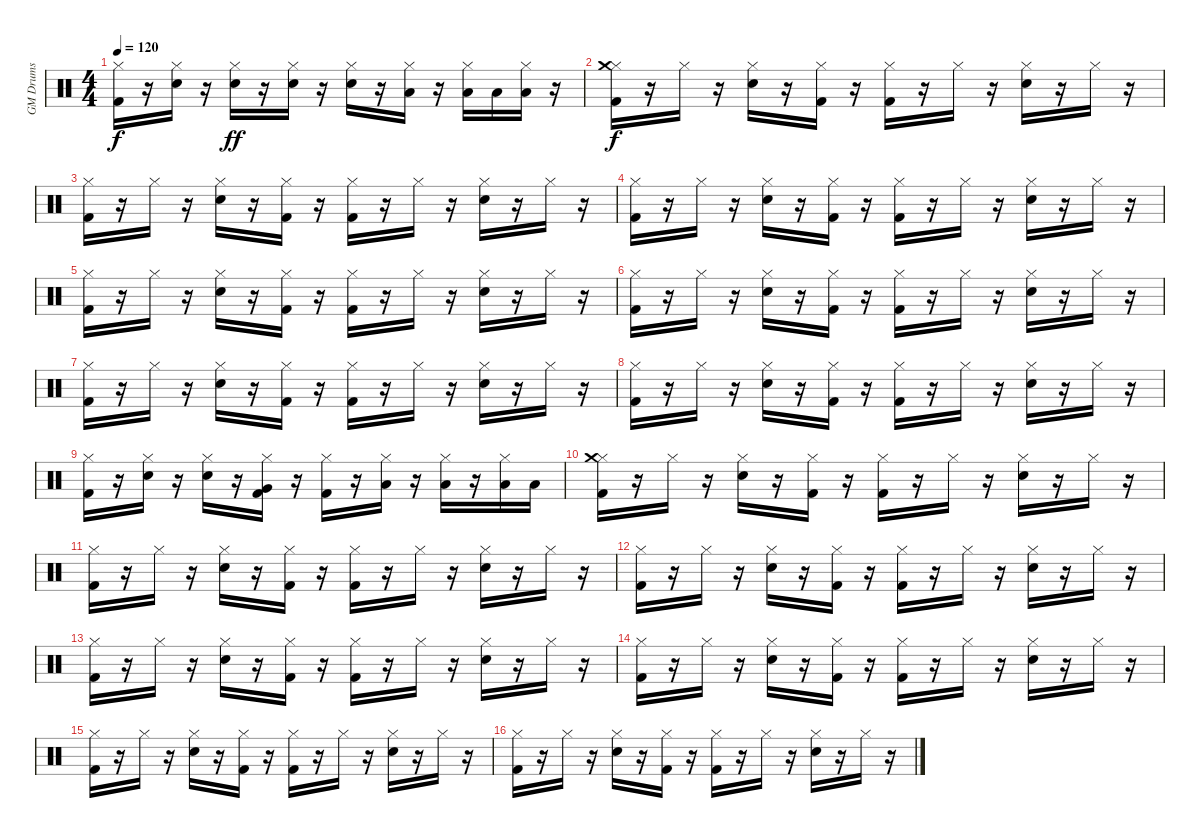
\track ("GM Drums" "GM Drums") {instrument percussion}
\staff {score}
\articulation defaults
\ts (4 4)
\tempo 120
\clef neutral
\ks c
("Kick (hit) 2" "Hi-Hat (closed)").16{dy f} r.16 ("Snare (hit) 2" "Hi-Hat (closed)").16 r.16 ("Snare (hit) 2" "Hi-Hat (closed)").16{dy ff} r.16 ("Snare (hit) 2" "Hi-Hat (closed)").16 r.16 ("Snare (hit) 2" "Hi-Hat (closed)").16 r.16 ("Low Floor Tom (hit)" "Hi-Hat (closed)").16 r.16 ("Hi-Hat (closed)" "Low Tom (hit)").16 "Low Tom (hit)".16 ("Hi-Hat (closed)" "Low Tom (hit)").16 r.16 |
("Kick (hit) 2" "Hi-Hat (closed)" "Crash medium (hit)").16{dy f} r.16 "Hi-Hat (closed)".16 r.16 ("Snare (hit) 2" "Hi-Hat (closed)").16 r.16 ("Kick (hit) 2" "Hi-Hat (closed)").16 r.16 ("Kick (hit) 2" "Hi-Hat (closed)").16 r.16 "Hi-Hat (closed)".16 r.16 ("Snare (hit) 2" "Hi-Hat (closed)").16 r.16 "Hi-Hat (closed)".16 r.16 |
("Kick (hit) 2" "Hi-Hat (closed)").16 r.16 "Hi-Hat (closed)".16 r.16 ("Snare (hit) 2" "Hi-Hat (closed)").16 r.16 ("Kick (hit) 2" "Hi-Hat (closed)").16 r.16 ("Kick (hit) 2" "Hi-Hat (closed)").16 r.16 "Hi-Hat (closed)".16 r.16 ("Snare (hit) 2" "Hi-Hat (closed)").16 r.16 "Hi-Hat (closed)".16 r.16 |
("Kick (hit) 2" "Hi-Hat (closed)").16 r.16 "Hi-Hat (closed)".16 r.16 ("Snare (hit) 2" "Hi-Hat (closed)").16 r.16 ("Kick (hit) 2" "Hi-Hat (closed)").16 r.16 ("Kick (hit) 2" "Hi-Hat (closed)").16 r.16 "Hi-Hat (closed)".16 r.16 ("Snare (hit) 2" "Hi-Hat (closed)").16 r.16 "Hi-Hat (closed)".16 r.16 |
("Kick (hit) 2" "Hi-Hat (closed)").16 r.16 "Hi-Hat (closed)".16 r.16 ("Snare (hit) 2" "Hi-Hat (closed)").16 r.16 ("Kick (hit) 2" "Hi-Hat (closed)").16 r.16 ("Kick (hit) 2" "Hi-Hat (closed)").16 r.16 "Hi-Hat (closed)".16 r.16 ("Snare (hit) 2" "Hi-Hat (closed)").16 r.16 "Hi-Hat (closed)".16 r.16 |
("Kick (hit) 2" "Hi-Hat (closed)").16 r.16 "Hi-Hat (closed)".16 r.16 ("Snare (hit) 2" "Hi-Hat (closed)").16 r.16 ("Kick (hit) 2" "Hi-Hat (closed)").16 r.16 ("Kick (hit) 2" "Hi-Hat (closed)").16 r.16 "Hi-Hat (closed)".16 r.16 ("Snare (hit) 2" "Hi-Hat (closed)").16 r.16 "Hi-Hat (closed)".16 r.16 |
("Kick (hit) 2" "Hi-Hat (closed)").16 r.16 "Hi-Hat (closed)".16 r.16 ("Snare (hit) 2" "Hi-Hat (closed)").16 r.16 ("Kick (hit) 2" "Hi-Hat (closed)").16 r.16 ("Kick (hit) 2" "Hi-Hat (closed)").16 r.16 "Hi-Hat (closed)".16 r.16 ("Snare (hit) 2" "Hi-Hat (closed)").16 r.16 "Hi-Hat (closed)".16 r.16 |
("Kick (hit) 2" "Hi-Hat (closed)").16 r.16 "Hi-Hat (closed)".16 r.16 ("Snare (hit) 2" "Hi-Hat (closed)").16 r.16 ("Kick (hit) 2" "Hi-Hat (closed)").16 r.16 ("Kick (hit) 2" "Hi-Hat (closed)").16 r.16 "Hi-Hat (closed)".16 r.16 ("Snare (hit) 2" "Hi-Hat (closed)").16 r.16 "Hi-Hat (closed)".16 r.16 |
("Kick (hit) 2" "Hi-Hat (closed)").16 r.16 ("Snare (hit) 2" "Hi-Hat (closed)").16 r.16 ("Snare (hit) 2" "Hi-Hat (closed)").16 r.16 ("Kick (hit) 2" "Hi-Hat (closed)" "Very Low Tom (hit)").16 r.16 ("Kick (hit) 2" "Hi-Hat (closed)").16 r.16 ("Low Floor Tom (hit)" "Hi-Hat (closed)").16 r.16 ("Hi-Hat (closed)" "Low Tom (hit)").16 r.16 ("Hi-Hat (closed)" "Low Tom (hit)").16 "Low Tom (hit)".16 |
("Kick (hit) 2" "Hi-Hat (closed)" "Crash medium (hit)").16 r.16 "Hi-Hat (closed)".16 r.16 ("Snare (hit) 2" "Hi-Hat (closed)").16 r.16 ("Kick (hit) 2" "Hi-Hat (closed)").16 r.16 ("Kick (hit) 2" "Hi-Hat (closed)").16 r.16 "Hi-Hat (closed)".16 r.16 ("Snare (hit) 2" "Hi-Hat (closed)").16 r.16 "Hi-Hat (closed)".16 r.16 |
("Kick (hit) 2" "Hi-Hat (closed)").16 r.16 "Hi-Hat (closed)".16 r.16 ("Snare (hit) 2" "Hi-Hat (closed)").16 r.16 ("Kick (hit) 2" "Hi-Hat (closed)").16 r.16 ("Kick (hit) 2" "Hi-Hat (closed)").16 r.16 "Hi-Hat (closed)".16 r.16 ("Snare (hit) 2" "Hi-Hat (closed)").16 r.16 "Hi-Hat (closed)".16 r.16 |
("Kick (hit) 2" "Hi-Hat (closed)").16 r.16 "Hi-Hat (closed)".16 r.16 ("Snare (hit) 2" "Hi-Hat (closed)").16 r.16 ("Kick (hit) 2" "Hi-Hat (closed)").16 r.16 ("Kick (hit) 2" "Hi-Hat (closed)").16 r.16 "Hi-Hat (closed)".16 r.16 ("Snare (hit) 2" "Hi-Hat (closed)").16 r.16 "Hi-Hat (closed)".16 r.16 |
("Kick (hit) 2" "Hi-Hat (closed)").16 r.16 "Hi-Hat (closed)".16 r.16 ("Snare (hit) 2" "Hi-Hat (closed)").16 r.16 ("Kick (hit) 2" "Hi-Hat (closed)").16 r.16 ("Kick (hit) 2" "Hi-Hat (closed)").16 r.16 "Hi-Hat (closed)".16 r.16 ("Snare (hit) 2" "Hi-Hat (closed)").16 r.16 "Hi-Hat (closed)".16 r.16 |
("Kick (hit) 2" "Hi-Hat (closed)").16 r.16 "Hi-Hat (closed)".16 r.16 ("Snare (hit) 2" "Hi-Hat (closed)").16 r.16 ("Kick (hit) 2" "Hi-Hat (closed)").16 r.16 ("Kick (hit) 2" "Hi-Hat (closed)").16 r.16 "Hi-Hat (closed)".16 r.16 ("Snare (hit) 2" "Hi-Hat (closed)").16 r.16 "Hi-Hat (closed)".16 r.16 |
("Kick (hit) 2" "Hi-Hat (closed)").16 r.16 "Hi-Hat (closed)".16 r.16 ("Snare (hit) 2" "Hi-Hat (closed)").16 r.16 ("Kick (hit) 2" "Hi-Hat (closed)").16 r.16 ("Kick (hit) 2" "Hi-Hat (closed)").16 r.16 "Hi-Hat (closed)".16 r.16 ("Snare (hit) 2" "Hi-Hat (closed)").16 r.16 "Hi-Hat (closed)".16 r.16 |
("Kick (hit) 2" "Hi-Hat (closed)").16 r.16 "Hi-Hat (closed)".16 r.16 ("Snare (hit) 2" "Hi-Hat (closed)").16 r.16 ("Kick (hit) 2" "Hi-Hat (closed)").16 r.16 ("Kick (hit) 2" "Hi-Hat (closed)").16 r.16 "Hi-Hat (closed)".16 r.16 ("Snare (hit) 2" "Hi-Hat (closed)").16 r.16 "Hi-Hat (closed)".16 r.16
